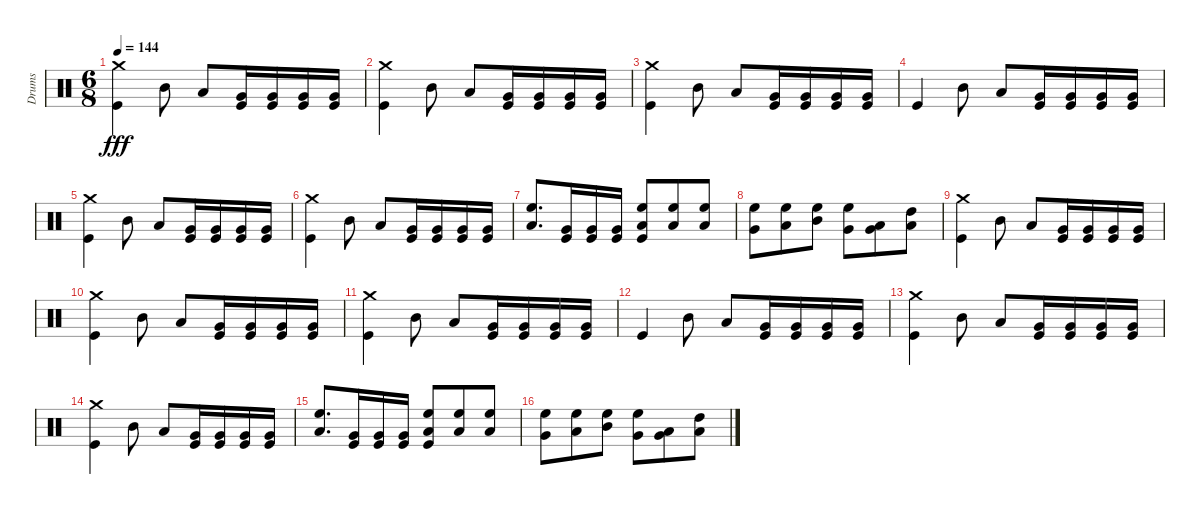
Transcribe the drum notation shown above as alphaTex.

\track ("Drums" "Drums") {instrument percussion}
\staff {score}
\articulation defaults
\ts (6 8)
\tempo 144
\clef neutral
\ks c
("Crash medium (hit)" "Kick (hit)").4{dy fff} "Mid Tom (hit)".8 "Low Tom (hit)".8 ("Very Low Tom (hit)" "Kick (hit)").16 ("Very Low Tom (hit)" "Kick (hit)").16 ("Very Low Tom (hit)" "Kick (hit)").16 ("Very Low Tom (hit)" "Kick (hit)").16 |
("Crash medium (hit)" "Kick (hit)").4 "Mid Tom (hit)".8 "Low Tom (hit)".8 ("Very Low Tom (hit)" "Kick (hit)").16 ("Very Low Tom (hit)" "Kick (hit)").16 ("Very Low Tom (hit)" "Kick (hit)").16 ("Very Low Tom (hit)" "Kick (hit)").16 |
("Crash medium (hit)" "Kick (hit)").4 "Mid Tom (hit)".8 "Low Tom (hit)".8 ("Very Low Tom (hit)" "Kick (hit)").16 ("Very Low Tom (hit)" "Kick (hit)").16 ("Very Low Tom (hit)" "Kick (hit)").16 ("Very Low Tom (hit)" "Kick (hit)").16 |
"Kick (hit)".4 "Mid Tom (hit)".8 "Low Tom (hit)".8 ("Very Low Tom (hit)" "Kick (hit)").16 ("Very Low Tom (hit)" "Kick (hit)").16 ("Very Low Tom (hit)" "Kick (hit)").16 ("Very Low Tom (hit)" "Kick (hit)").16 |
("Crash medium (hit)" "Kick (hit)").4 "Mid Tom (hit)".8 "Low Tom (hit)".8 ("Very Low Tom (hit)" "Kick (hit)").16 ("Very Low Tom (hit)" "Kick (hit)").16 ("Very Low Tom (hit)" "Kick (hit)").16 ("Very Low Tom (hit)" "Kick (hit)").16 |
("Crash medium (hit)" "Kick (hit)").4 "Mid Tom (hit)".8 "Low Tom (hit)".8 ("Very Low Tom (hit)" "Kick (hit)").16 ("Very Low Tom (hit)" "Kick (hit)").16 ("Very Low Tom (hit)" "Kick (hit)").16 ("Very Low Tom (hit)" "Kick (hit)").16 |
("High Floor Tom (hit)" "Low Tom (hit)").8{d} ("Very Low Tom (hit)" "Kick (hit)").16 ("Very Low Tom (hit)" "Kick (hit)").16 ("Very Low Tom (hit)" "Kick (hit)").16 ("High Floor Tom (hit)" "Low Tom (hit)" "Kick (hit)").8 ("High Floor Tom (hit)" "Low Tom (hit)").8 ("High Floor Tom (hit)" "Low Tom (hit)").8 |
("High Floor Tom (hit)" "Very Low Tom (hit)").8 ("High Floor Tom (hit)" "Low Tom (hit)").8 ("High Floor Tom (hit)" "Mid Tom (hit)").8 ("High Floor Tom (hit)" "Very Low Tom (hit)").8 ("Low Tom (hit)" "Very Low Tom (hit)").8 ("Low Tom (hit)" "High Tom (hit)").8 |
("Crash medium (hit)" "Kick (hit)").4 "Mid Tom (hit)".8 "Low Tom (hit)".8 ("Very Low Tom (hit)" "Kick (hit)").16 ("Very Low Tom (hit)" "Kick (hit)").16 ("Very Low Tom (hit)" "Kick (hit)").16 ("Very Low Tom (hit)" "Kick (hit)").16 |
("Crash medium (hit)" "Kick (hit)").4 "Mid Tom (hit)".8 "Low Tom (hit)".8 ("Very Low Tom (hit)" "Kick (hit)").16 ("Very Low Tom (hit)" "Kick (hit)").16 ("Very Low Tom (hit)" "Kick (hit)").16 ("Very Low Tom (hit)" "Kick (hit)").16 |
("Crash medium (hit)" "Kick (hit)").4 "Mid Tom (hit)".8 "Low Tom (hit)".8 ("Very Low Tom (hit)" "Kick (hit)").16 ("Very Low Tom (hit)" "Kick (hit)").16 ("Very Low Tom (hit)" "Kick (hit)").16 ("Very Low Tom (hit)" "Kick (hit)").16 |
"Kick (hit)".4 "Mid Tom (hit)".8 "Low Tom (hit)".8 ("Very Low Tom (hit)" "Kick (hit)").16 ("Very Low Tom (hit)" "Kick (hit)").16 ("Very Low Tom (hit)" "Kick (hit)").16 ("Very Low Tom (hit)" "Kick (hit)").16 |
("Crash medium (hit)" "Kick (hit)").4 "Mid Tom (hit)".8 "Low Tom (hit)".8 ("Very Low Tom (hit)" "Kick (hit)").16 ("Very Low Tom (hit)" "Kick (hit)").16 ("Very Low Tom (hit)" "Kick (hit)").16 ("Very Low Tom (hit)" "Kick (hit)").16 |
("Crash medium (hit)" "Kick (hit)").4 "Mid Tom (hit)".8 "Low Tom (hit)".8 ("Very Low Tom (hit)" "Kick (hit)").16 ("Very Low Tom (hit)" "Kick (hit)").16 ("Very Low Tom (hit)" "Kick (hit)").16 ("Very Low Tom (hit)" "Kick (hit)").16 |
("High Floor Tom (hit)" "Low Tom (hit)").8{d} ("Very Low Tom (hit)" "Kick (hit)").16 ("Very Low Tom (hit)" "Kick (hit)").16 ("Very Low Tom (hit)" "Kick (hit)").16 ("High Floor Tom (hit)" "Low Tom (hit)" "Kick (hit)").8 ("High Floor Tom (hit)" "Low Tom (hit)").8 ("High Floor Tom (hit)" "Low Tom (hit)").8 |
("High Floor Tom (hit)" "Very Low Tom (hit)").8 ("High Floor Tom (hit)" "Low Tom (hit)").8 ("High Floor Tom (hit)" "Mid Tom (hit)").8 ("High Floor Tom (hit)" "Very Low Tom (hit)").8 ("Low Tom (hit)" "Very Low Tom (hit)").8 ("Low Tom (hit)" "High Tom (hit)").8
